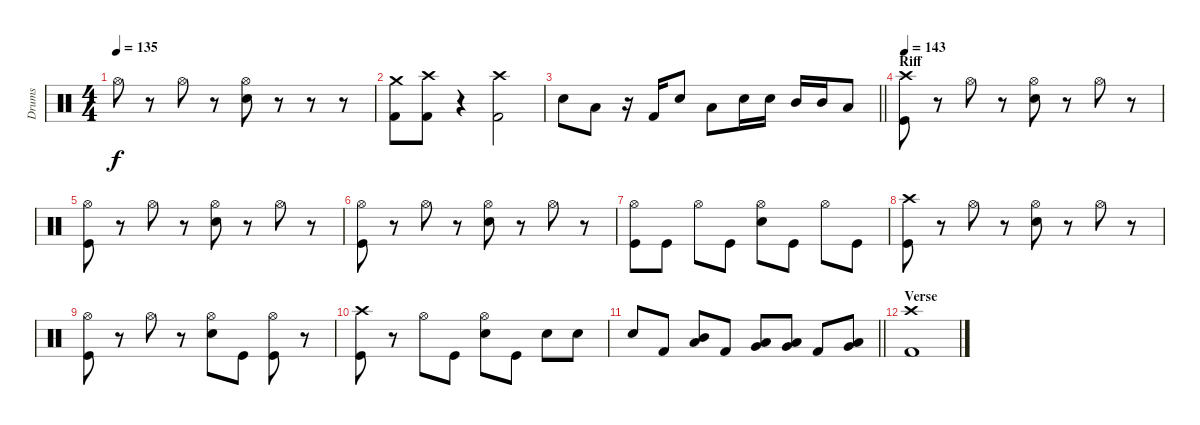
\track ("Drums" "Drums") {instrument percussion}
\staff {score}
\articulation defaults
\ts (4 4)
\tempo 135
\clef neutral
\ks c "Hi-Hat (open)".8{dy f}
r.8 "Hi-Hat (open)".8 r.8 ("Hi-Hat (open)" "Snare (hit) 2").8 r.8 r.8 r.8 |
("Crash medium (hit)" "Kick (hit) 2").8 ("Crash high (hit)" "Kick (hit) 2").8 r.4 ("Crash high (hit)" "Kick (hit) 2").2 |
\barLineRight lightlight "Snare (hit) 2".8 "Low Tom (hit)".8
r.16 "Kick (hit) 2".16 "Snare (hit) 2".8 "Low Tom (hit)".8 "Snare (hit) 2".16 "Snare (hit) 2".16 "Mid Tom (hit)".16 "Mid Tom (hit)".16 "Low Tom (hit)".8 |
\section ("" "Riff")
\tempo 143
("Crash high (hit)" "Kick (hit)").8 r.8 "Hi-Hat (open)".8 r.8 ("Hi-Hat (open)" "Snare (hit) 2").8 r.8 "Hi-Hat (open)".8 r.8 |
("Hi-Hat (open)" "Kick (hit)").8 r.8 "Hi-Hat (open)".8 r.8 ("Hi-Hat (open)" "Snare (hit) 2").8 r.8 "Hi-Hat (open)".8 r.8 |
("Hi-Hat (open)" "Kick (hit)").8 r.8 "Hi-Hat (open)".8 r.8 ("Hi-Hat (open)" "Snare (hit) 2").8 r.8 "Hi-Hat (open)".8 r.8 |
("Hi-Hat (open)" "Kick (hit)").8 "Kick (hit)".8 "Hi-Hat (open)".8 "Kick (hit)".8 ("Hi-Hat (open)" "Snare (hit) 2").8 "Kick (hit)".8 "Hi-Hat (open)".8 "Kick (hit)".8 |
("Crash high (hit)" "Kick (hit)").8 r.8 "Hi-Hat (open)".8 r.8 ("Hi-Hat (open)" "Snare (hit) 2").8 r.8 "Hi-Hat (open)".8 r.8 |
("Hi-Hat (open)" "Kick (hit)").8 r.8 "Hi-Hat (open)".8 r.8 ("Hi-Hat (open)" "Snare (hit) 2").8 "Kick (hit)".8 ("Hi-Hat (open)" "Kick (hit)").8 r.8 |
("Crash high (hit)" "Kick (hit)").8 r.8 "Hi-Hat (open)".8 "Kick (hit)".8 ("Hi-Hat (open)" "Snare (hit) 2").8 "Kick (hit)".8 "Snare (hit) 2".8 "Snare (hit) 2".8 |
\barLineRight lightlight "Snare (hit) 2".8 "Kick (hit) 2".8
("Mid Tom (hit)" "Low Tom (hit)").8 "Kick (hit) 2".8 ("Low Tom (hit)" "Very Low Tom (hit)").8 ("Low Tom (hit)" "Very Low Tom (hit)").8 "Kick (hit) 2".8 ("Very Low Tom (hit)" "Low Floor Tom (hit)").8 |
\section ("" "Verse")
("Crash high (hit)" "Kick (hit) 2").1
